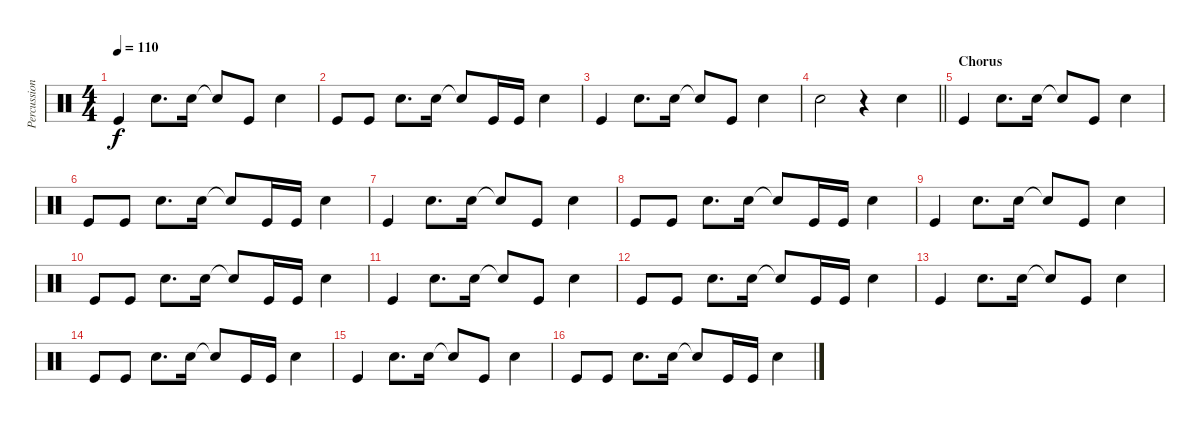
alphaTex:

\track ("Percussion" "Percussion") {instrument percussion}
\staff {score}
\articulation defaults
\ts (4 4)
\tempo 110
\clef neutral
\ks c "Kick (hit)".4{dy f} "Snare (hit) 2".8{d} "Snare (hit) 2".16 "Snare (hit) 2"{t}.8 "Kick (hit)".8 "Snare (hit) 2".4
|
"Kick (hit)".8 "Kick (hit)".8 "Snare (hit) 2".8{d} "Snare (hit) 2".16 "Snare (hit) 2"{t}.8 "Kick (hit)".16 "Kick (hit)".16 "Snare (hit) 2".4 |
"Kick (hit)".4 "Snare (hit) 2".8{d} "Snare (hit) 2".16 "Snare (hit) 2"{t}.8 "Kick (hit)".8 "Snare (hit) 2".4 |
\barLineRight lightlight "Snare (hit) 2".2
r.4 "Snare (hit) 2".4 |
\section ("" "Chorus")
"Kick (hit)".4 "Snare (hit) 2".8{d} "Snare (hit) 2".16 "Snare (hit) 2"{t}.8 "Kick (hit)".8 "Snare (hit) 2".4 |
"Kick (hit)".8 "Kick (hit)".8 "Snare (hit) 2".8{d} "Snare (hit) 2".16 "Snare (hit) 2"{t}.8 "Kick (hit)".16 "Kick (hit)".16 "Snare (hit) 2".4 |
"Kick (hit)".4 "Snare (hit) 2".8{d} "Snare (hit) 2".16 "Snare (hit) 2"{t}.8 "Kick (hit)".8 "Snare (hit) 2".4 |
"Kick (hit)".8 "Kick (hit)".8 "Snare (hit) 2".8{d} "Snare (hit) 2".16 "Snare (hit) 2"{t}.8 "Kick (hit)".16 "Kick (hit)".16 "Snare (hit) 2".4 |
"Kick (hit)".4 "Snare (hit) 2".8{d} "Snare (hit) 2".16 "Snare (hit) 2"{t}.8 "Kick (hit)".8 "Snare (hit) 2".4 |
"Kick (hit)".8 "Kick (hit)".8 "Snare (hit) 2".8{d} "Snare (hit) 2".16 "Snare (hit) 2"{t}.8 "Kick (hit)".16 "Kick (hit)".16 "Snare (hit) 2".4 |
"Kick (hit)".4 "Snare (hit) 2".8{d} "Snare (hit) 2".16 "Snare (hit) 2"{t}.8 "Kick (hit)".8 "Snare (hit) 2".4 |
"Kick (hit)".8 "Kick (hit)".8 "Snare (hit) 2".8{d} "Snare (hit) 2".16 "Snare (hit) 2"{t}.8 "Kick (hit)".16 "Kick (hit)".16 "Snare (hit) 2".4 |
"Kick (hit)".4 "Snare (hit) 2".8{d} "Snare (hit) 2".16 "Snare (hit) 2"{t}.8 "Kick (hit)".8 "Snare (hit) 2".4 |
"Kick (hit)".8 "Kick (hit)".8 "Snare (hit) 2".8{d} "Snare (hit) 2".16 "Snare (hit) 2"{t}.8 "Kick (hit)".16 "Kick (hit)".16 "Snare (hit) 2".4 |
"Kick (hit)".4 "Snare (hit) 2".8{d} "Snare (hit) 2".16 "Snare (hit) 2"{t}.8 "Kick (hit)".8 "Snare (hit) 2".4 |
"Kick (hit)".8 "Kick (hit)".8 "Snare (hit) 2".8{d} "Snare (hit) 2".16 "Snare (hit) 2"{t}.8 "Kick (hit)".16 "Kick (hit)".16 "Snare (hit) 2".4
